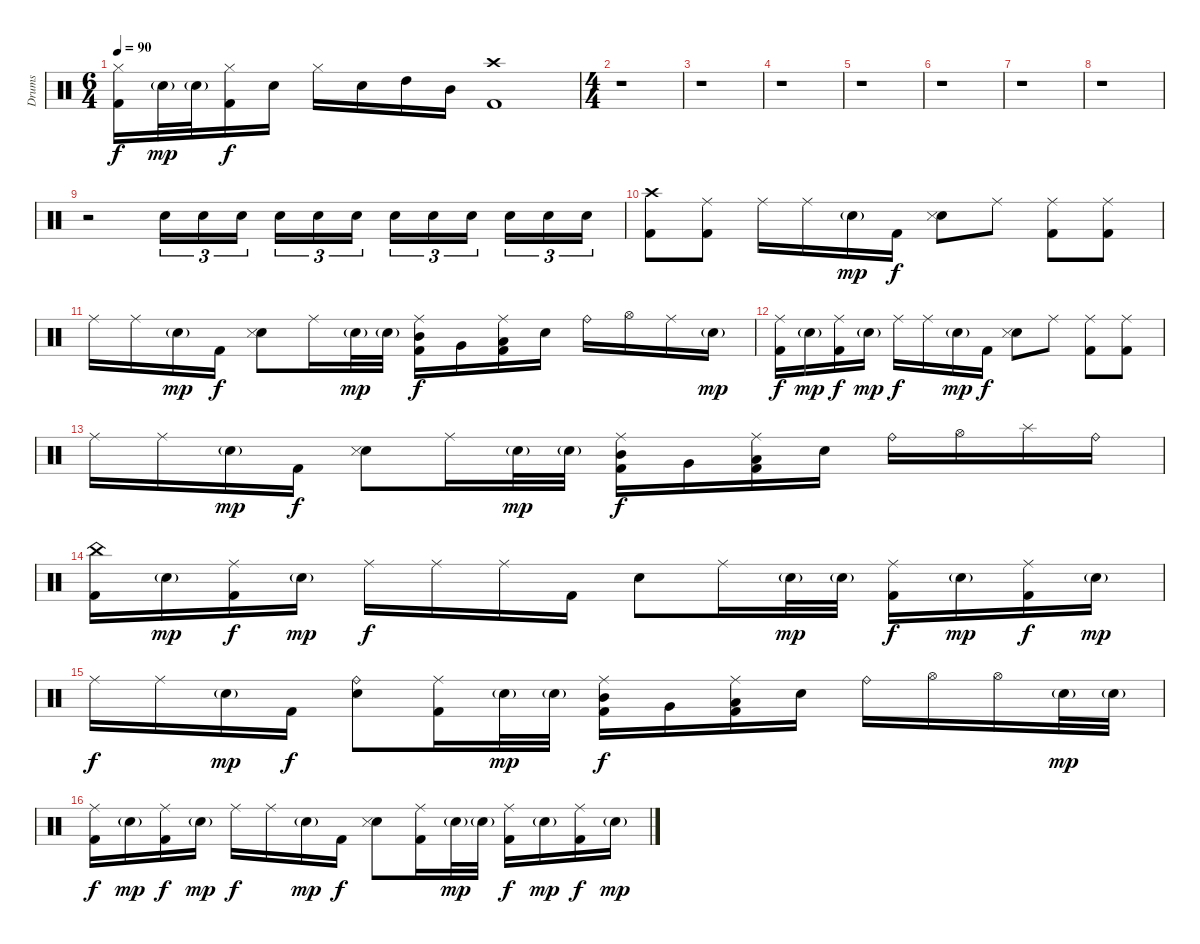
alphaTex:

\track ("Drums" "Drums") {instrument percussion}
\staff {score}
\articulation defaults
\ts (6 4)
\tempo 90
\clef neutral
\ks c
("Hi-Hat (closed)" "Kick (hit) 2").16{dy f} "Electric Snare (hit)"{g}.32{dy mp} "Electric Snare (hit)"{g}.32 ("Hi-Hat (closed)" "Kick (hit) 2").16{dy f} "Electric Snare (hit)".16 "Hi-Hat (closed)".16 "Electric Snare (hit)".16 "High Tom (hit)".16 "Mid Tom (hit)".16 ("Crash high (hit)" "Kick (hit) 2").1 |
\ts (4 4)
r.1 |
r.1 |
r.1 |
r.1 |
r.1 |
r.1 |
r.1 |
r.2{volume 0} "Electric Snare (hit)".16{tu (3 2) volume 8} "Electric Snare (hit)".16{tu (3 2)} "Electric Snare (hit)".16{tu (3 2) beam splitsecondary} "Electric Snare (hit)".16{tu (3 2)} "Electric Snare (hit)".16{tu (3 2)} "Electric Snare (hit)".16{tu (3 2)} "Electric Snare (hit)".16{tu (3 2)} "Electric Snare (hit)".16{tu (3 2)} "Electric Snare (hit)".16{tu (3 2) beam splitsecondary} "Electric Snare (hit)".16{tu (3 2)} "Electric Snare (hit)".16{tu (3 2)} "Electric Snare (hit)".16{tu (3 2)} |
("Crash high (hit)" "Kick (hit) 2").8 ("Kick (hit) 2" "Ride (middle)").8 "Ride (middle)".16 "Ride (middle)".16 "Electric Snare (hit)"{g}.16{dy mp} "Kick (hit) 2".16{dy f} ("Electric Snare (hit)" "Snare (side stick) 3").8 "Ride (middle)".8 ("Ride (middle)" "Kick (hit) 2").8 ("Ride (middle)" "Kick (hit) 2").8 |
"Ride (middle)".16 "Ride (middle)".16 "Electric Snare (hit)"{g}.16{dy mp} "Kick (hit) 2".16{dy f} ("Electric Snare (hit)" "Snare (side stick) 3").8 "Ride (middle)".16 "Electric Snare (hit)"{g}.32{dy mp} "Electric Snare (hit)"{g}.32 ("Ride (middle)" "Mid Tom (hit)" "Kick (hit) 2").16{dy f} "Very Low Tom (hit)".16 ("Low Floor Tom (hit)" "Ride (middle)" "Kick (hit) 2").16 "Electric Snare (hit)".16 "Ride (bell)".16 "Hi-Hat (open)".16 "Ride (middle)".16 "Electric Snare (hit)"{g}.16{dy mp} |
("Ride (middle)" "Kick (hit) 2").16{dy f} "Electric Snare (hit)"{g}.16{dy mp} ("Ride (middle)" "Kick (hit) 2").16{dy f} "Electric Snare (hit)"{g}.16{dy mp} "Ride (middle)".16{dy f} "Ride (middle)".16 "Electric Snare (hit)"{g}.16{dy mp} "Kick (hit) 2".16{dy f} ("Electric Snare (hit)" "Snare (side stick) 3").8 "Ride (middle)".8 ("Ride (middle)" "Kick (hit) 2").8 ("Ride (middle)" "Kick (hit) 2").8 |
"Ride (middle)".16 "Ride (middle)".16 "Electric Snare (hit)"{g}.16{dy mp} "Kick (hit) 2".16{dy f} ("Electric Snare (hit)" "Snare (side stick) 3").8 "Ride (middle)".16 "Electric Snare (hit)"{g}.32{dy mp} "Electric Snare (hit)"{g}.32 ("Ride (middle)" "Mid Tom (hit)" "Kick (hit) 2").16{dy f} "Very Low Tom (hit)".16 ("Low Floor Tom (hit)" "Ride (middle)" "Kick (hit) 2").16 "Electric Snare (hit)".16 "Ride (bell)".16 "Hi-Hat (open)".16 "Splash (hit)".16 "Ride (bell)".16 |
("China (hit)" "Kick (hit) 2").16 "Electric Snare (hit)"{g}.16{dy mp} ("Ride (middle)" "Kick (hit) 2").16{dy f} "Electric Snare (hit)"{g}.16{dy mp} "Ride (middle)".16{dy f} "Ride (middle)".16 "Ride (middle)".16 "Kick (hit) 2".16 "Electric Snare (hit)".8 "Ride (middle)".16 "Electric Snare (hit)"{g}.32{dy mp} "Electric Snare (hit)"{g}.32 ("Ride (middle)" "Kick (hit) 2").16{dy f} "Electric Snare (hit)"{g}.16{dy mp} ("Ride (middle)" "Kick (hit) 2").16{dy f} "Electric Snare (hit)"{g}.16{dy mp} |
"Ride (middle)".16{dy f} "Ride (middle)".16 "Electric Snare (hit)"{g}.16{dy mp} "Kick (hit) 2".16{dy f} ("Electric Snare (hit)" "Ride (bell)").8 ("Ride (middle)" "Kick (hit) 2").16 "Electric Snare (hit)"{g}.32{dy mp} "Electric Snare (hit)"{g}.32 ("Ride (middle)" "Mid Tom (hit)" "Kick (hit) 2").16{dy f} "Very Low Tom (hit)".16 ("Low Floor Tom (hit)" "Ride (middle)" "Kick (hit) 2").16 "Electric Snare (hit)".16 "Ride (bell)".16 "Hi-Hat (open)".16 "Hi-Hat (open)".16 "Electric Snare (hit)"{g}.32{dy mp} "Electric Snare (hit)"{g}.32 |
("Ride (middle)" "Kick (hit) 2").16{dy f} "Electric Snare (hit)"{g}.16{dy mp} ("Ride (middle)" "Kick (hit) 2").16{dy f} "Electric Snare (hit)"{g}.16{dy mp} "Ride (middle)".16{dy f} "Ride (middle)".16 "Electric Snare (hit)"{g}.16{dy mp} "Kick (hit) 2".16{dy f} ("Electric Snare (hit)" "Snare (side stick) 3").8 ("Ride (middle)" "Kick (hit) 2").16 "Electric Snare (hit)"{g}.32{dy mp} "Electric Snare (hit)"{g}.32 ("Kick (hit) 2" "Ride (middle)").16{dy f} "Electric Snare (hit)"{g}.16{dy mp} ("Ride (middle)" "Kick (hit) 2").16{dy f} "Electric Snare (hit)"{g}.16{dy mp}
